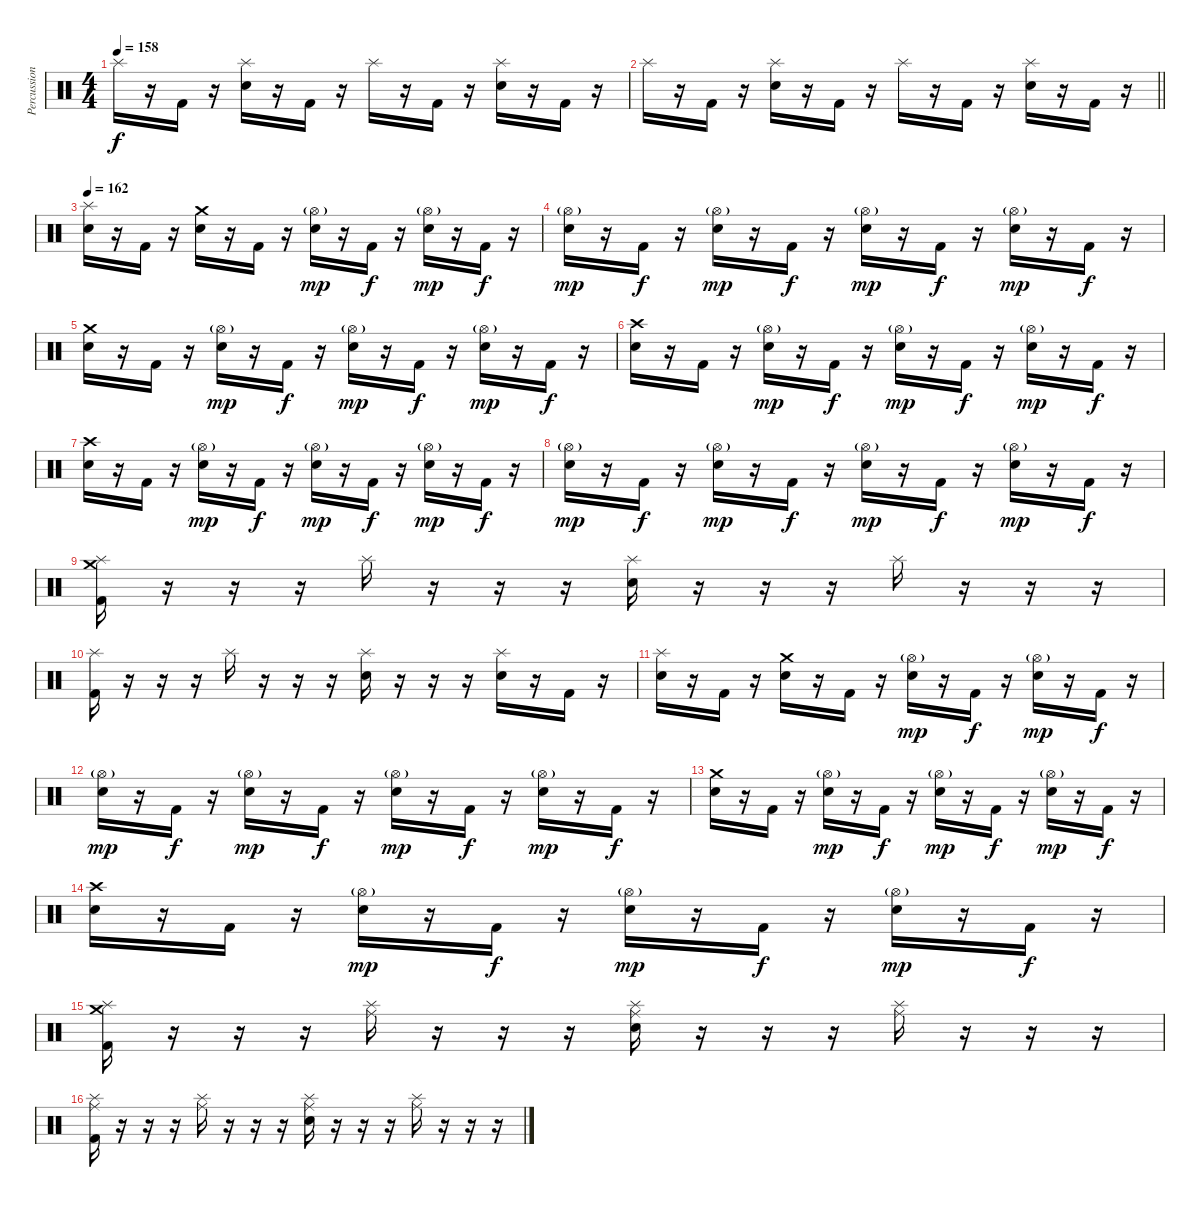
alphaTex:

\track ("Percussion" "Percussion") {instrument percussion}
\staff {score}
\articulation defaults
\ts (4 4)
\tempo 158
\clef neutral
\ks c "Splash (hit)".16{dy f}
r.16 "Kick (hit) 2".16 r.16 ("Splash (hit)" "Electric Snare (hit)").16 r.16 "Kick (hit) 2".16 r.16 "Splash (hit)".16 r.16 "Kick (hit) 2".16 r.16 ("Splash (hit)" "Electric Snare (hit)").16 r.16 "Kick (hit) 2".16 r.16 |
\barLineRight lightlight "Splash (hit)".16
r.16 "Kick (hit) 2".16 r.16 ("Splash (hit)" "Electric Snare (hit)").16 r.16 "Kick (hit) 2".16 r.16 "Splash (hit)".16 r.16 "Kick (hit) 2".16 r.16 ("Splash (hit)" "Electric Snare (hit)").16 r.16 "Kick (hit) 2".16 r.16 |
\section ("" "")
\tempo 162
("Splash (hit)" "Electric Snare (hit)").16 r.16 "Kick (hit) 2".16 r.16 ("Crash medium (hit)" "Electric Snare (hit)").16 r.16 "Kick (hit) 2".16 r.16 ("Hi-Hat (open)"{g} "Electric Snare (hit)").16{dy mp} r.16 "Kick (hit) 2".16{dy f} r.16 ("Hi-Hat (open)"{g} "Electric Snare (hit)").16{dy mp} r.16 "Kick (hit) 2".16{dy f} r.16 |
("Hi-Hat (open)"{g} "Electric Snare (hit)").16{dy mp} r.16 "Kick (hit) 2".16{dy f} r.16 ("Hi-Hat (open)"{g} "Electric Snare (hit)").16{dy mp} r.16 "Kick (hit) 2".16{dy f} r.16 ("Hi-Hat (open)"{g} "Electric Snare (hit)").16{dy mp} r.16 "Kick (hit) 2".16{dy f} r.16 ("Hi-Hat (open)"{g} "Electric Snare (hit)").16{dy mp} r.16 "Kick (hit) 2".16{dy f} r.16 |
("Crash medium (hit)" "Electric Snare (hit)").16 r.16 "Kick (hit) 2".16 r.16 ("Hi-Hat (open)"{g} "Electric Snare (hit)").16{dy mp} r.16 "Kick (hit) 2".16{dy f} r.16 ("Hi-Hat (open)"{g} "Electric Snare (hit)").16{dy mp} r.16 "Kick (hit) 2".16{dy f} r.16 ("Hi-Hat (open)"{g} "Electric Snare (hit)").16{dy mp} r.16 "Kick (hit) 2".16{dy f} r.16 |
("Crash high (hit)" "Electric Snare (hit)").16 r.16 "Kick (hit) 2".16 r.16 ("Hi-Hat (open)"{g} "Electric Snare (hit)").16{dy mp} r.16 "Kick (hit) 2".16{dy f} r.16 ("Hi-Hat (open)"{g} "Electric Snare (hit)").16{dy mp} r.16 "Kick (hit) 2".16{dy f} r.16 ("Hi-Hat (open)"{g} "Electric Snare (hit)").16{dy mp} r.16 "Kick (hit) 2".16{dy f} r.16 |
("Crash high (hit)" "Electric Snare (hit)").16 r.16 "Kick (hit) 2".16 r.16 ("Hi-Hat (open)"{g} "Electric Snare (hit)").16{dy mp} r.16 "Kick (hit) 2".16{dy f} r.16 ("Hi-Hat (open)"{g} "Electric Snare (hit)").16{dy mp} r.16 "Kick (hit) 2".16{dy f} r.16 ("Hi-Hat (open)"{g} "Electric Snare (hit)").16{dy mp} r.16 "Kick (hit) 2".16{dy f} r.16 |
("Hi-Hat (open)"{g} "Electric Snare (hit)").16{dy mp} r.16 "Kick (hit) 2".16{dy f} r.16 ("Hi-Hat (open)"{g} "Electric Snare (hit)").16{dy mp} r.16 "Kick (hit) 2".16{dy f} r.16 ("Hi-Hat (open)"{g} "Electric Snare (hit)").16{dy mp} r.16 "Kick (hit) 2".16{dy f} r.16 ("Hi-Hat (open)"{g} "Electric Snare (hit)").16{dy mp} r.16 "Kick (hit) 2".16{dy f} r.16 |
("Splash (hit)" "Crash medium (hit)" "Kick (hit) 2").16 r.16 r.16 r.16 "Splash (hit)".16 r.16 r.16 r.16 ("Splash (hit)" "Electric Snare (hit)").16 r.16 r.16 r.16 "Splash (hit)".16 r.16 r.16 r.16 |
("Splash (hit)" "Kick (hit) 2").16 r.16 r.16 r.16 "Splash (hit)".16 r.16 r.16 r.16 ("Splash (hit)" "Electric Snare (hit)").16 r.16 r.16 r.16 ("Splash (hit)" "Electric Snare (hit)").16 r.16 "Kick (hit) 2".16 r.16 |
("Splash (hit)" "Electric Snare (hit)").16 r.16 "Kick (hit) 2".16 r.16 ("Crash medium (hit)" "Electric Snare (hit)").16 r.16 "Kick (hit) 2".16 r.16 ("Hi-Hat (open)"{g} "Electric Snare (hit)").16{dy mp} r.16 "Kick (hit) 2".16{dy f} r.16 ("Hi-Hat (open)"{g} "Electric Snare (hit)").16{dy mp} r.16 "Kick (hit) 2".16{dy f} r.16 |
("Hi-Hat (open)"{g} "Electric Snare (hit)").16{dy mp} r.16 "Kick (hit) 2".16{dy f} r.16 ("Hi-Hat (open)"{g} "Electric Snare (hit)").16{dy mp} r.16 "Kick (hit) 2".16{dy f} r.16 ("Hi-Hat (open)"{g} "Electric Snare (hit)").16{dy mp} r.16 "Kick (hit) 2".16{dy f} r.16 ("Hi-Hat (open)"{g} "Electric Snare (hit)").16{dy mp} r.16 "Kick (hit) 2".16{dy f} r.16 |
("Crash medium (hit)" "Electric Snare (hit)").16 r.16 "Kick (hit) 2".16 r.16 ("Hi-Hat (open)"{g} "Electric Snare (hit)").16{dy mp} r.16 "Kick (hit) 2".16{dy f} r.16 ("Hi-Hat (open)"{g} "Electric Snare (hit)").16{dy mp} r.16 "Kick (hit) 2".16{dy f} r.16 ("Hi-Hat (open)"{g} "Electric Snare (hit)").16{dy mp} r.16 "Kick (hit) 2".16{dy f} r.16 |
("Crash high (hit)" "Electric Snare (hit)").16 r.16 "Kick (hit) 2".16 r.16 ("Hi-Hat (open)"{g} "Electric Snare (hit)").16{dy mp} r.16 "Kick (hit) 2".16{dy f} r.16 ("Hi-Hat (open)"{g} "Electric Snare (hit)").16{dy mp} r.16 "Kick (hit) 2".16{dy f} r.16 ("Hi-Hat (open)"{g} "Electric Snare (hit)").16{dy mp} r.16 "Kick (hit) 2".16{dy f} r.16 |
("Splash (hit)" "Crash medium (hit)" "Kick (hit) 2").16 r.16 r.16 r.16 ("Ride (middle)" "Splash (hit)").16 r.16 r.16 r.16 ("Ride (middle)" "Splash (hit)" "Electric Snare (hit)").16 r.16 r.16 r.16 ("Ride (middle)" "Splash (hit)").16 r.16 r.16 r.16 |
("Ride (middle)" "Splash (hit)" "Kick (hit) 2").16 r.16 r.16 r.16 ("Ride (middle)" "Splash (hit)").16 r.16 r.16 r.16 ("Ride (middle)" "Splash (hit)" "Electric Snare (hit)").16 r.16 r.16 r.16 ("Ride (middle)" "Splash (hit)").16 r.16 r.16 r.16
